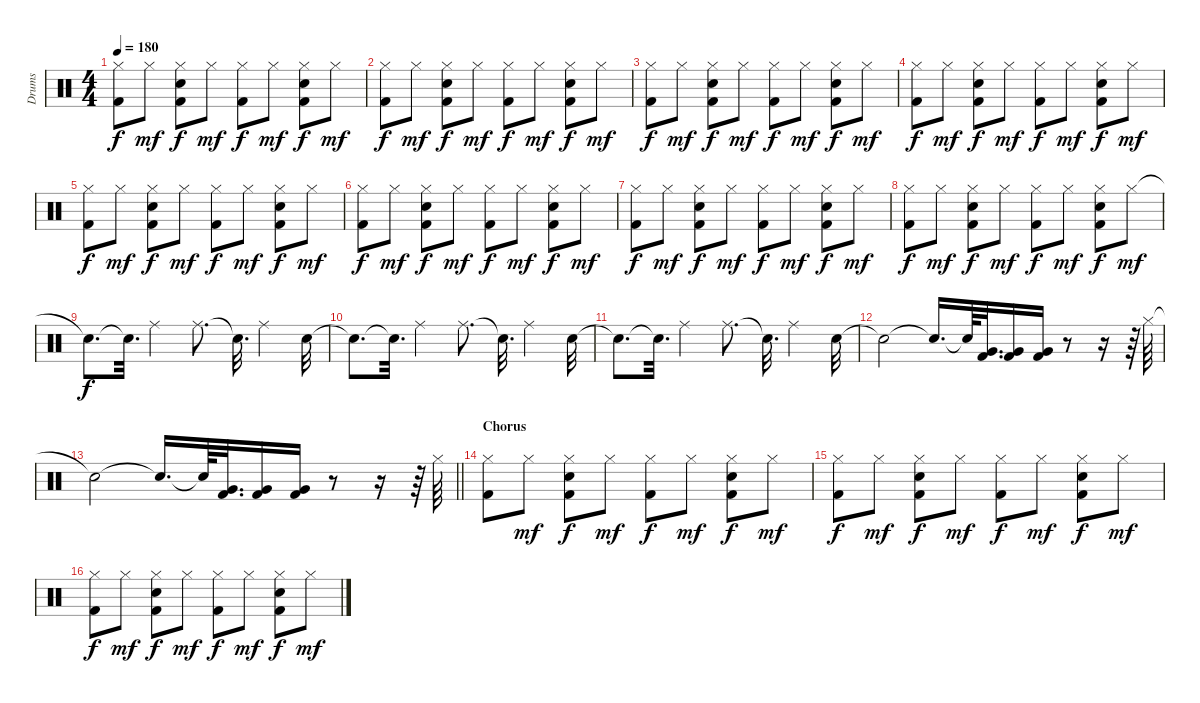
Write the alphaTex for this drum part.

\track ("Drums" "Drums") {instrument percussion}
\staff {score}
\articulation defaults
\ts (4 4)
\tempo 180
\clef neutral
\ks c
("Hi-Hat (closed)" "Kick (hit) 2").8{dy f} "Hi-Hat (closed)".8{dy mf} ("Hi-Hat (closed)" "Electric Snare (hit)" "Kick (hit) 2").8{dy f} "Hi-Hat (closed)".8{dy mf} ("Hi-Hat (closed)" "Kick (hit) 2").8{dy f} "Hi-Hat (closed)".8{dy mf} ("Hi-Hat (closed)" "Electric Snare (hit)" "Kick (hit) 2").8{dy f} "Hi-Hat (closed)".8{dy mf} |
("Hi-Hat (closed)" "Kick (hit) 2").8{dy f} "Hi-Hat (closed)".8{dy mf} ("Hi-Hat (closed)" "Electric Snare (hit)" "Kick (hit) 2").8{dy f} "Hi-Hat (closed)".8{dy mf} ("Hi-Hat (closed)" "Kick (hit) 2").8{dy f} "Hi-Hat (closed)".8{dy mf} ("Hi-Hat (closed)" "Electric Snare (hit)" "Kick (hit) 2").8{dy f} "Hi-Hat (closed)".8{dy mf} |
("Hi-Hat (closed)" "Kick (hit) 2").8{dy f} "Hi-Hat (closed)".8{dy mf} ("Hi-Hat (closed)" "Electric Snare (hit)" "Kick (hit) 2").8{dy f} "Hi-Hat (closed)".8{dy mf} ("Hi-Hat (closed)" "Kick (hit) 2").8{dy f} "Hi-Hat (closed)".8{dy mf} ("Hi-Hat (closed)" "Electric Snare (hit)" "Kick (hit) 2").8{dy f} "Hi-Hat (closed)".8{dy mf} |
("Hi-Hat (closed)" "Kick (hit) 2").8{dy f} "Hi-Hat (closed)".8{dy mf} ("Hi-Hat (closed)" "Electric Snare (hit)" "Kick (hit) 2").8{dy f} "Hi-Hat (closed)".8{dy mf} ("Hi-Hat (closed)" "Kick (hit) 2").8{dy f} "Hi-Hat (closed)".8{dy mf} ("Hi-Hat (closed)" "Electric Snare (hit)" "Kick (hit) 2").8{dy f} "Hi-Hat (closed)".8{dy mf} |
("Hi-Hat (closed)" "Kick (hit) 2").8{dy f} "Hi-Hat (closed)".8{dy mf} ("Hi-Hat (closed)" "Electric Snare (hit)" "Kick (hit) 2").8{dy f} "Hi-Hat (closed)".8{dy mf} ("Hi-Hat (closed)" "Kick (hit) 2").8{dy f} "Hi-Hat (closed)".8{dy mf} ("Hi-Hat (closed)" "Electric Snare (hit)" "Kick (hit) 2").8{dy f} "Hi-Hat (closed)".8{dy mf} |
("Hi-Hat (closed)" "Kick (hit) 2").8{dy f} "Hi-Hat (closed)".8{dy mf} ("Hi-Hat (closed)" "Electric Snare (hit)" "Kick (hit) 2").8{dy f} "Hi-Hat (closed)".8{dy mf} ("Hi-Hat (closed)" "Kick (hit) 2").8{dy f} "Hi-Hat (closed)".8{dy mf} ("Hi-Hat (closed)" "Electric Snare (hit)" "Kick (hit) 2").8{dy f} "Hi-Hat (closed)".8{dy mf} |
("Hi-Hat (closed)" "Kick (hit) 2").8{dy f} "Hi-Hat (closed)".8{dy mf} ("Hi-Hat (closed)" "Electric Snare (hit)" "Kick (hit) 2").8{dy f} "Hi-Hat (closed)".8{dy mf} ("Hi-Hat (closed)" "Kick (hit) 2").8{dy f} "Hi-Hat (closed)".8{dy mf} ("Hi-Hat (closed)" "Electric Snare (hit)" "Kick (hit) 2").8{dy f} "Hi-Hat (closed)".8{dy mf} |
("Hi-Hat (closed)" "Kick (hit) 2").8{dy f} "Hi-Hat (closed)".8{dy mf} ("Hi-Hat (closed)" "Electric Snare (hit)" "Kick (hit) 2").8{dy f} "Hi-Hat (closed)".8{dy mf} ("Hi-Hat (closed)" "Kick (hit) 2").8{dy f} "Hi-Hat (closed)".8{dy mf} ("Hi-Hat (closed)" "Electric Snare (hit)" "Kick (hit) 2").8{dy f} "Hi-Hat (closed)".8{dy mf} |
"Snare (hit)"{t}.8{d dy f} "Snare (hit)"{t}.32{d} "Ride (middle)".4 "Ride (middle)".8{d} "Snare (hit)"{t}.32{d} "Ride (middle)".4 "Snare (hit) 2".32 |
"Snare (hit)"{t}.8{d} "Snare (hit)"{t}.32{d} "Ride (middle)".4 "Ride (middle)".8{d} "Snare (hit)"{t}.32{d} "Ride (middle)".4 "Snare (hit) 2".32 |
"Snare (hit)"{t}.8{d} "Snare (hit)"{t}.32{d} "Ride (middle)".4 "Ride (middle)".8{d} "Snare (hit)"{t}.32{d} "Ride (middle)".4 "Snare (hit) 2".32 |
"Snare (hit)"{t}.2 "Snare (hit)"{t}.16{d} "Snare (hit)"{t}.64 ("Kick (hit) 2" "Very Low Tom (hit)").32{d} ("Kick (hit) 2" "Very Low Tom (hit)").16 ("Very Low Tom (hit)" "Kick (hit) 2").16 r.8 r.16 r.64 "Hi-Hat (closed)".64 |
\barLineRight lightlight "Snare (hit)"{t}.2 "Snare (hit)"{t}.16{d} "Snare (hit)"{t}.64
("Kick (hit) 2" "Very Low Tom (hit)").32{d} ("Kick (hit) 2" "Very Low Tom (hit)").16 ("Very Low Tom (hit)" "Kick (hit) 2").16 r.8 r.16 r.64 "Hi-Hat (closed)".64 |
\section ("" "Chorus")
("Hi-Hat (closed)" "Kick (hit) 2").8 "Hi-Hat (closed)".8{dy mf} ("Hi-Hat (closed)" "Electric Snare (hit)" "Kick (hit) 2").8{dy f} "Hi-Hat (closed)".8{dy mf} ("Hi-Hat (closed)" "Kick (hit) 2").8{dy f} "Hi-Hat (closed)".8{dy mf} ("Hi-Hat (closed)" "Electric Snare (hit)" "Kick (hit) 2").8{dy f} "Hi-Hat (closed)".8{dy mf} |
("Hi-Hat (closed)" "Kick (hit) 2").8{dy f} "Hi-Hat (closed)".8{dy mf} ("Hi-Hat (closed)" "Electric Snare (hit)" "Kick (hit) 2").8{dy f} "Hi-Hat (closed)".8{dy mf} ("Hi-Hat (closed)" "Kick (hit) 2").8{dy f} "Hi-Hat (closed)".8{dy mf} ("Hi-Hat (closed)" "Electric Snare (hit)" "Kick (hit) 2").8{dy f} "Hi-Hat (closed)".8{dy mf} |
("Hi-Hat (closed)" "Kick (hit) 2").8{dy f} "Hi-Hat (closed)".8{dy mf} ("Hi-Hat (closed)" "Electric Snare (hit)" "Kick (hit) 2").8{dy f} "Hi-Hat (closed)".8{dy mf} ("Hi-Hat (closed)" "Kick (hit) 2").8{dy f} "Hi-Hat (closed)".8{dy mf} ("Hi-Hat (closed)" "Electric Snare (hit)" "Kick (hit) 2").8{dy f} "Hi-Hat (closed)".8{dy mf}
